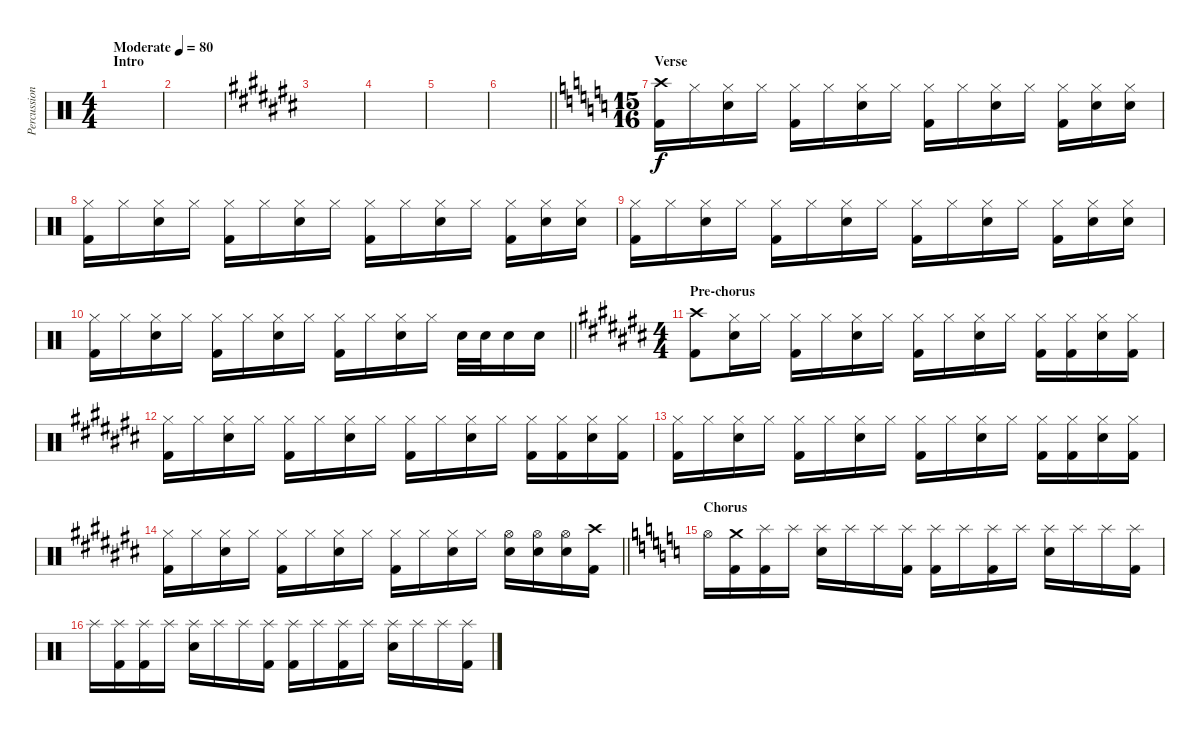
\track ("Percussion" "Percussion") {instrument percussion}
\staff {score}
\articulation defaults
\ts (4 4)
\section ("" "Intro")
\tempo (80 "Moderate")
\clef neutral
\ks c
|
|
\ks c#
|
|
|
\barLineRight lightlight
|
\ts (15 16)
\section ("" "Verse")
\ks c
("Crash high (hit)" "Kick (hit) 2").16 "Hi-Hat (closed)".16 ("Hi-Hat (closed)" "Electric Snare (hit)").16 "Hi-Hat (closed)".16 ("Hi-Hat (closed)" "Kick (hit) 2").16 "Hi-Hat (closed)".16 ("Hi-Hat (closed)" "Electric Snare (hit)").16 "Hi-Hat (closed)".16 ("Hi-Hat (closed)" "Kick (hit) 2").16 "Hi-Hat (closed)".16 ("Hi-Hat (closed)" "Electric Snare (hit)").16 "Hi-Hat (closed)".16 ("Hi-Hat (closed)" "Kick (hit) 2").16 ("Hi-Hat (closed)" "Electric Snare (hit)").16 ("Hi-Hat (closed)" "Electric Snare (hit)").16 |
("Hi-Hat (closed)" "Kick (hit) 2").16 "Hi-Hat (closed)".16 ("Hi-Hat (closed)" "Electric Snare (hit)").16 "Hi-Hat (closed)".16 ("Hi-Hat (closed)" "Kick (hit) 2").16 "Hi-Hat (closed)".16 ("Hi-Hat (closed)" "Electric Snare (hit)").16 "Hi-Hat (closed)".16 ("Hi-Hat (closed)" "Kick (hit) 2").16 "Hi-Hat (closed)".16 ("Hi-Hat (closed)" "Electric Snare (hit)").16 "Hi-Hat (closed)".16 ("Hi-Hat (closed)" "Kick (hit) 2").16 ("Hi-Hat (closed)" "Electric Snare (hit)").16 ("Hi-Hat (closed)" "Electric Snare (hit)").16 |
("Hi-Hat (closed)" "Kick (hit) 2").16 "Hi-Hat (closed)".16 ("Hi-Hat (closed)" "Electric Snare (hit)").16 "Hi-Hat (closed)".16 ("Hi-Hat (closed)" "Kick (hit) 2").16 "Hi-Hat (closed)".16 ("Hi-Hat (closed)" "Electric Snare (hit)").16 "Hi-Hat (closed)".16 ("Hi-Hat (closed)" "Kick (hit) 2").16 "Hi-Hat (closed)".16 ("Hi-Hat (closed)" "Electric Snare (hit)").16 "Hi-Hat (closed)".16 ("Hi-Hat (closed)" "Kick (hit) 2").16 ("Hi-Hat (closed)" "Electric Snare (hit)").16 ("Hi-Hat (closed)" "Electric Snare (hit)").16 |
\barLineRight lightlight
("Hi-Hat (closed)" "Kick (hit) 2").16 "Hi-Hat (closed)".16 ("Hi-Hat (closed)" "Electric Snare (hit)").16 "Hi-Hat (closed)".16 ("Hi-Hat (closed)" "Kick (hit) 2").16 "Hi-Hat (closed)".16 ("Hi-Hat (closed)" "Electric Snare (hit)").16 "Hi-Hat (closed)".16 ("Hi-Hat (closed)" "Kick (hit) 2").16 "Hi-Hat (closed)".16 ("Hi-Hat (closed)" "Electric Snare (hit)").16 "Hi-Hat (closed)".16 "Electric Snare (hit)".32 "Electric Snare (hit)".32 "Electric Snare (hit)".16 "Electric Snare (hit)".16 |
\ts (4 4)
\section ("" "Pre-chorus")
\ks c#
("Crash high (hit)" "Kick (hit) 2").8 ("Hi-Hat (closed)" "Electric Snare (hit)").16 "Hi-Hat (closed)".16 ("Hi-Hat (closed)" "Kick (hit) 2").16 "Hi-Hat (closed)".16 ("Hi-Hat (closed)" "Electric Snare (hit)").16 "Hi-Hat (closed)".16 ("Hi-Hat (closed)" "Kick (hit) 2").16 "Hi-Hat (closed)".16 ("Hi-Hat (closed)" "Electric Snare (hit)").16 "Hi-Hat (closed)".16 ("Hi-Hat (closed)" "Kick (hit) 2").16 ("Hi-Hat (closed)" "Kick (hit) 2").16 ("Hi-Hat (closed)" "Electric Snare (hit)").16 ("Hi-Hat (closed)" "Kick (hit) 2").16 |
("Hi-Hat (closed)" "Kick (hit) 2").16 "Hi-Hat (closed)".16 ("Hi-Hat (closed)" "Electric Snare (hit)").16 "Hi-Hat (closed)".16 ("Hi-Hat (closed)" "Kick (hit) 2").16 "Hi-Hat (closed)".16 ("Hi-Hat (closed)" "Electric Snare (hit)").16 "Hi-Hat (closed)".16 ("Hi-Hat (closed)" "Kick (hit) 2").16 "Hi-Hat (closed)".16 ("Hi-Hat (closed)" "Electric Snare (hit)").16 "Hi-Hat (closed)".16 ("Hi-Hat (closed)" "Kick (hit) 2").16 ("Hi-Hat (closed)" "Kick (hit) 2").16 ("Hi-Hat (closed)" "Electric Snare (hit)").16 ("Hi-Hat (closed)" "Kick (hit) 2").16 |
("Hi-Hat (closed)" "Kick (hit) 2").16 "Hi-Hat (closed)".16 ("Hi-Hat (closed)" "Electric Snare (hit)").16 "Hi-Hat (closed)".16 ("Hi-Hat (closed)" "Kick (hit) 2").16 "Hi-Hat (closed)".16 ("Hi-Hat (closed)" "Electric Snare (hit)").16 "Hi-Hat (closed)".16 ("Hi-Hat (closed)" "Kick (hit) 2").16 "Hi-Hat (closed)".16 ("Hi-Hat (closed)" "Electric Snare (hit)").16 "Hi-Hat (closed)".16 ("Hi-Hat (closed)" "Kick (hit) 2").16 ("Hi-Hat (closed)" "Kick (hit) 2").16 ("Hi-Hat (closed)" "Electric Snare (hit)").16 ("Hi-Hat (closed)" "Kick (hit) 2").16 |
\barLineRight lightlight
("Hi-Hat (closed)" "Kick (hit) 2").16 "Hi-Hat (closed)".16 ("Hi-Hat (closed)" "Electric Snare (hit)").16 "Hi-Hat (closed)".16 ("Hi-Hat (closed)" "Kick (hit) 2").16 "Hi-Hat (closed)".16 ("Hi-Hat (closed)" "Electric Snare (hit)").16 "Hi-Hat (closed)".16 ("Hi-Hat (closed)" "Kick (hit) 2").16 "Hi-Hat (closed)".16 ("Hi-Hat (closed)" "Electric Snare (hit)").16 "Hi-Hat (closed)".16 ("Hi-Hat (open)" "Electric Snare (hit)").16 ("Hi-Hat (open)" "Electric Snare (hit)").16 ("Hi-Hat (open)" "Electric Snare (hit)").16 ("Crash high (hit)" "Kick (hit) 2").16 |
\section ("" "Chorus")
\ks c "Hi-Hat (open)".16
("Crash medium (hit)" "Kick (hit) 2").16 ("Splash (hit)" "Kick (hit) 2").16 "Splash (hit)".16 ("Splash (hit)" "Electric Snare (hit)").16 "Splash (hit)".16 "Splash (hit)".16 ("Splash (hit)" "Kick (hit) 2").16 ("Splash (hit)" "Kick (hit) 2").16 "Splash (hit)".16 ("Splash (hit)" "Kick (hit) 2").16 "Splash (hit)".16 ("Splash (hit)" "Electric Snare (hit)").16 "Splash (hit)".16 "Splash (hit)".16 ("Splash (hit)" "Kick (hit) 2").16 |
"Splash (hit)".16 ("Splash (hit)" "Kick (hit) 2").16 ("Splash (hit)" "Kick (hit) 2").16 "Splash (hit)".16 ("Splash (hit)" "Electric Snare (hit)").16 "Splash (hit)".16 "Splash (hit)".16 ("Splash (hit)" "Kick (hit) 2").16 ("Splash (hit)" "Kick (hit) 2").16 "Splash (hit)".16 ("Splash (hit)" "Kick (hit) 2").16 "Splash (hit)".16 ("Splash (hit)" "Electric Snare (hit)").16 "Splash (hit)".16 "Splash (hit)".16 ("Splash (hit)" "Kick (hit) 2").16
